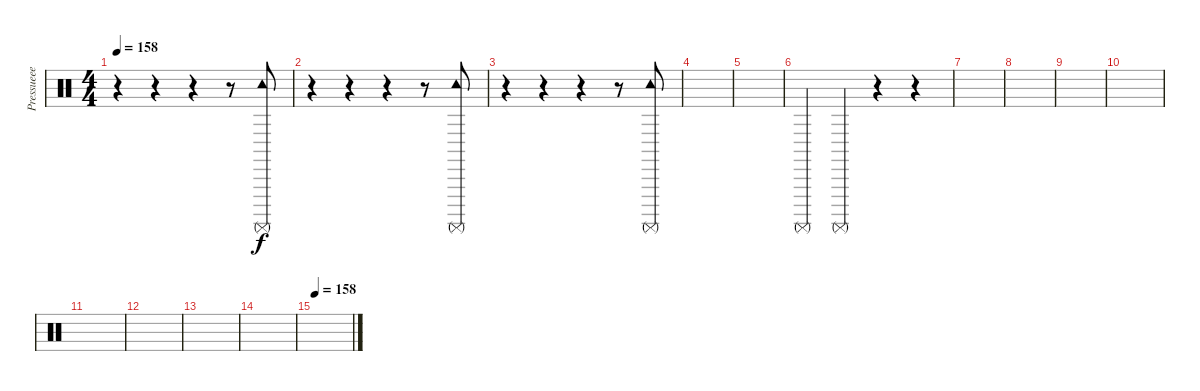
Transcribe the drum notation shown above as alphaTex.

\track ("Pressueee " "Pressueee ") {instrument percussion}
\staff {score}
\articulation defaults
\ts (4 4)
\tempo 158
\clef neutral
\ks c
r.4{dy f} r.4 r.4 r.8 ("Tambourine (hit)" "Surdo (mute)").8 |
r.4 r.4 r.4 r.8 ("Tambourine (hit)" "Surdo (mute)").8 |
r.4 r.4 r.4 r.8 ("Tambourine (hit)" "Surdo (mute)").8 |
|
|
"Surdo (mute)".4 "Surdo (mute)".4 r.4 r.4 |
|
|
|
|
|
|
|
\section ("" "")
|
\tempo 158
